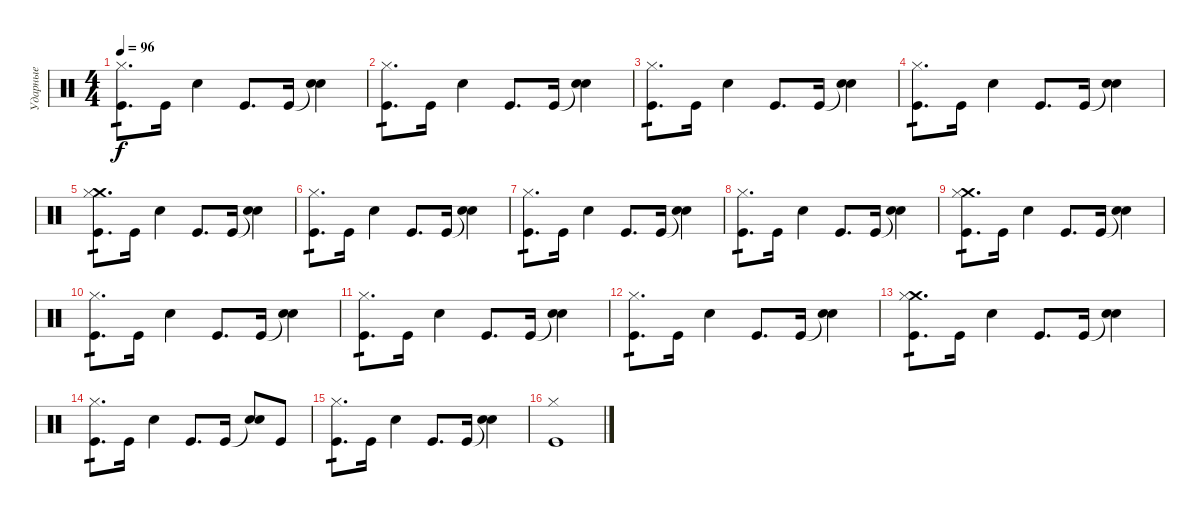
\track ("Ударные" "Ударные") {instrument percussion}
\staff {score}
\articulation defaults
\ts (4 4)
\tempo 96
\clef neutral
\ks c
("Hi-Hat (closed)" "Kick (hit)").8{d tp 1 dy f} "Kick (hit)".16 "Electric Snare (hit)".4 "Kick (hit)".8{d} "Kick (hit)".16 ("Snare (hit)"{t} "Electric Snare (hit)").4 |
("Hi-Hat (closed)" "Kick (hit)").8{d tp 1} "Kick (hit)".16 "Electric Snare (hit)".4 "Kick (hit)".8{d} "Kick (hit)".16 ("Snare (hit)"{t} "Electric Snare (hit)").4 |
("Hi-Hat (closed)" "Kick (hit)").8{d tp 1} "Kick (hit)".16 "Electric Snare (hit)".4 "Kick (hit)".8{d} "Kick (hit)".16 ("Snare (hit)"{t} "Electric Snare (hit)").4 |
("Hi-Hat (closed)" "Kick (hit)").8{d tp 1} "Kick (hit)".16 "Electric Snare (hit)".4 "Kick (hit)".8{d} "Kick (hit)".16 ("Snare (hit)"{t} "Electric Snare (hit)").4 |
("Crash medium (hit)" "Hi-Hat (closed)" "Kick (hit)").8{d tp 1} "Kick (hit)".16 "Electric Snare (hit)".4 "Kick (hit)".8{d} "Kick (hit)".16 ("Snare (hit)"{t} "Electric Snare (hit)").4 |
("Hi-Hat (closed)" "Kick (hit)").8{d tp 1} "Kick (hit)".16 "Electric Snare (hit)".4 "Kick (hit)".8{d} "Kick (hit)".16 ("Snare (hit)"{t} "Electric Snare (hit)").4 |
("Hi-Hat (closed)" "Kick (hit)").8{d tp 1} "Kick (hit)".16 "Electric Snare (hit)".4 "Kick (hit)".8{d} "Kick (hit)".16 ("Snare (hit)"{t} "Electric Snare (hit)").4 |
("Hi-Hat (closed)" "Kick (hit)").8{d tp 1} "Kick (hit)".16 "Electric Snare (hit)".4 "Kick (hit)".8{d} "Kick (hit)".16 ("Snare (hit)"{t} "Electric Snare (hit)").4 |
("Crash medium (hit)" "Hi-Hat (closed)" "Kick (hit)").8{d tp 1} "Kick (hit)".16 "Electric Snare (hit)".4 "Kick (hit)".8{d} "Kick (hit)".16 ("Snare (hit)"{t} "Electric Snare (hit)").4 |
("Hi-Hat (closed)" "Kick (hit)").8{d tp 1} "Kick (hit)".16 "Electric Snare (hit)".4 "Kick (hit)".8{d} "Kick (hit)".16 ("Snare (hit)"{t} "Electric Snare (hit)").4 |
("Hi-Hat (closed)" "Kick (hit)").8{d tp 1} "Kick (hit)".16 "Electric Snare (hit)".4 "Kick (hit)".8{d} "Kick (hit)".16 ("Snare (hit)"{t} "Electric Snare (hit)").4 |
("Hi-Hat (closed)" "Kick (hit)").8{d tp 1} "Kick (hit)".16 "Electric Snare (hit)".4 "Kick (hit)".8{d} "Kick (hit)".16 ("Snare (hit)"{t} "Electric Snare (hit)").4 |
("Crash medium (hit)" "Hi-Hat (closed)" "Kick (hit)").8{d tp 1} "Kick (hit)".16 "Electric Snare (hit)".4 "Kick (hit)".8{d} "Kick (hit)".16 ("Snare (hit)"{t} "Electric Snare (hit)").4 |
("Hi-Hat (closed)" "Kick (hit)").8{d tp 1} "Kick (hit)".16 "Electric Snare (hit)".4 "Kick (hit)".8{d} "Kick (hit)".16 ("Snare (hit)"{t} "Electric Snare (hit)").8 "Kick (hit)".8 |
("Hi-Hat (closed)" "Kick (hit)").8{d tp 1} "Kick (hit)".16 "Electric Snare (hit)".4 "Kick (hit)".8{d} "Kick (hit)".16 ("Snare (hit)"{t} "Electric Snare (hit)").4 |
("Hi-Hat (closed)" "Kick (hit)").1
